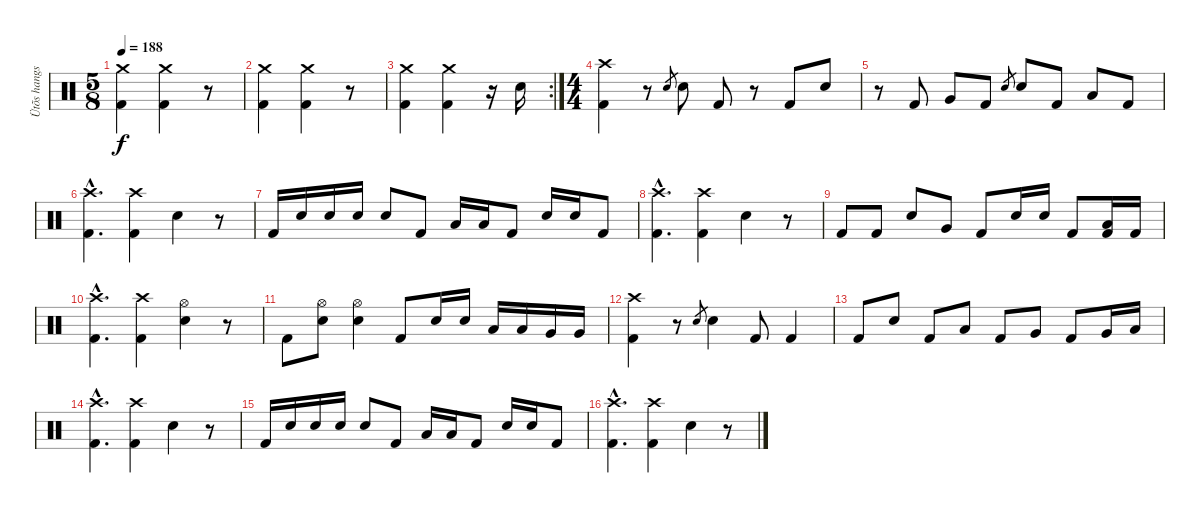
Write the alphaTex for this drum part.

\track ("Ütõs hangszer" "Ütõs hangs") {instrument percussion}
\staff {score}
\articulation defaults
\ts (5 8)
\tempo 188
\clef neutral
\ks c
("Crash medium (hit)" "Kick (hit) 2").4{dy f} ("Crash medium (hit)" "Kick (hit) 2").4 r.8 |
("Crash medium (hit)" "Kick (hit) 2").4 ("Crash medium (hit)" "Kick (hit) 2").4 r.8 |
\rc 2
("Crash medium (hit)" "Kick (hit) 2").4 ("Crash medium (hit)" "Kick (hit) 2").4 r.16 "Electric Snare (hit)".16 |
\ts (4 4)
("Crash high (hit)" "Kick (hit) 2").4 r.8 "Electric Snare (hit)".8{gr} "Electric Snare (hit)".8 "Kick (hit) 2".8 r.8 "Kick (hit) 2".8 "Electric Snare (hit)".8 |
r.8 "Kick (hit) 2".8 "Very Low Tom (hit)".8 "Kick (hit) 2".8 "Electric Snare (hit)".8{gr} "Electric Snare (hit)".8 "Kick (hit) 2".8 "Low Tom (hit)".8 "Kick (hit) 2".8 |
("Crash high (hit)"{hac} "Kick (hit) 2"{hac}).4{d} ("Crash high (hit)" "Kick (hit) 2").4 "Electric Snare (hit)".4 r.8 |
"Kick (hit) 2".16 "Electric Snare (hit)".16 "Electric Snare (hit)".16 "Electric Snare (hit)".16 "Electric Snare (hit)".8 "Kick (hit) 2".8 "Low Tom (hit)".16 "Low Tom (hit)".16 "Kick (hit) 2".8 "Electric Snare (hit)".16 "Electric Snare (hit)".16 "Kick (hit) 2".8 |
("Crash high (hit)"{hac} "Kick (hit) 2"{hac}).4{d} ("Crash high (hit)" "Kick (hit) 2").4 "Electric Snare (hit)".4 r.8 |
"Kick (hit) 2".8 "Kick (hit) 2".8 "Electric Snare (hit)".8 "Very Low Tom (hit)".8 "Kick (hit) 2".8 "Electric Snare (hit)".16 "Electric Snare (hit)".16 "Kick (hit) 2".8 ("Low Tom (hit)" "Kick (hit) 2").16 "Kick (hit) 2".16 |
("Crash high (hit)"{hac} "Kick (hit) 2"{hac}).4{d} ("Crash high (hit)" "Kick (hit) 2").4 ("Hi-Hat (open)" "Electric Snare (hit)").4 r.8 |
"Kick (hit) 2".8 ("Hi-Hat (open)" "Electric Snare (hit)").8 ("Hi-Hat (open)" "Electric Snare (hit)").4 "Kick (hit) 2".8 "Electric Snare (hit)".16 "Electric Snare (hit)".16 "Low Tom (hit)".16 "Low Tom (hit)".16 "Very Low Tom (hit)".16 "Very Low Tom (hit)".16 |
("Crash high (hit)" "Kick (hit) 2").4 r.8 "Electric Snare (hit)".8{gr} "Electric Snare (hit)".4 "Kick (hit) 2".8 "Kick (hit) 2".4 |
"Kick (hit) 2".8 "Electric Snare (hit)".8 "Kick (hit) 2".8 "Low Tom (hit)".8 "Kick (hit) 2".8 "Very Low Tom (hit)".8 "Kick (hit) 2".8 "Very Low Tom (hit)".16 "Low Floor Tom (hit)".16 |
("Crash high (hit)"{hac} "Kick (hit) 2"{hac}).4{d} ("Crash high (hit)" "Kick (hit) 2").4 "Electric Snare (hit)".4 r.8 |
"Kick (hit) 2".16 "Electric Snare (hit)".16 "Electric Snare (hit)".16 "Electric Snare (hit)".16 "Electric Snare (hit)".8 "Kick (hit) 2".8 "Low Tom (hit)".16 "Low Tom (hit)".16 "Kick (hit) 2".8 "Electric Snare (hit)".16 "Electric Snare (hit)".16 "Kick (hit) 2".8 |
("Crash high (hit)"{hac} "Kick (hit) 2"{hac}).4{d} ("Crash high (hit)" "Kick (hit) 2").4 "Electric Snare (hit)".4 r.8
